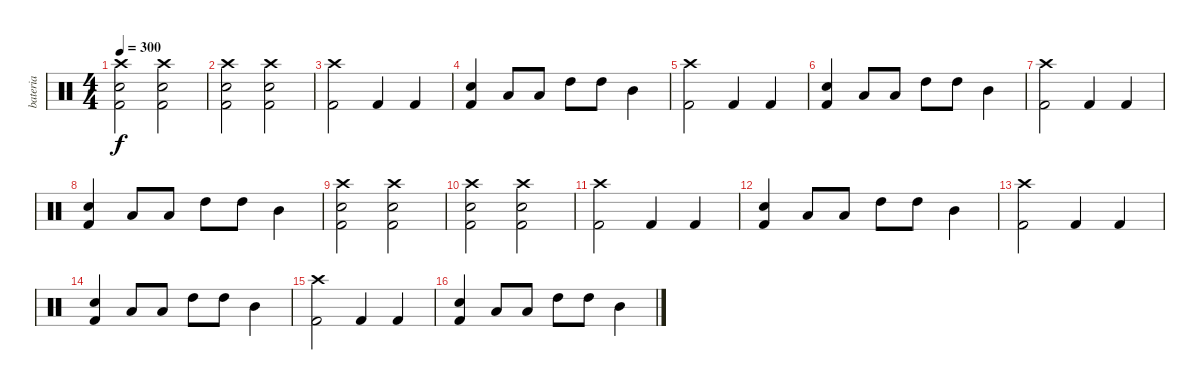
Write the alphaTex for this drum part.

\track ("bateria" "bateria") {instrument percussion}
\staff {score}
\articulation defaults
\ts (4 4)
\tempo 300
\clef neutral
\ks c
("Crash high (hit)" "Electric Snare (hit)" "Kick (hit) 2").2{dy f} ("Crash high (hit)" "Electric Snare (hit)" "Kick (hit) 2").2 |
("Crash high (hit)" "Electric Snare (hit)" "Kick (hit) 2").2 ("Crash high (hit)" "Electric Snare (hit)" "Kick (hit) 2").2 |
("Crash high (hit)" "Kick (hit) 2").2 "Kick (hit) 2".4 "Kick (hit) 2".4 |
("Electric Snare (hit)" "Kick (hit) 2").4 "Low Floor Tom (hit)".8 "Low Floor Tom (hit)".8 "High Tom (hit)".8 "High Tom (hit)".8 "Mid Tom (hit)".4 |
("Crash high (hit)" "Kick (hit) 2").2 "Kick (hit) 2".4 "Kick (hit) 2".4 |
("Electric Snare (hit)" "Kick (hit) 2").4 "Low Floor Tom (hit)".8 "Low Floor Tom (hit)".8 "High Tom (hit)".8 "High Tom (hit)".8 "Mid Tom (hit)".4 |
("Crash high (hit)" "Kick (hit) 2").2 "Kick (hit) 2".4 "Kick (hit) 2".4 |
("Electric Snare (hit)" "Kick (hit) 2").4 "Low Floor Tom (hit)".8 "Low Floor Tom (hit)".8 "High Tom (hit)".8 "High Tom (hit)".8 "Mid Tom (hit)".4 |
("Crash high (hit)" "Electric Snare (hit)" "Kick (hit) 2").2 ("Crash high (hit)" "Electric Snare (hit)" "Kick (hit) 2").2 |
("Crash high (hit)" "Electric Snare (hit)" "Kick (hit) 2").2 ("Crash high (hit)" "Electric Snare (hit)" "Kick (hit) 2").2 |
("Crash high (hit)" "Kick (hit) 2").2 "Kick (hit) 2".4 "Kick (hit) 2".4 |
("Electric Snare (hit)" "Kick (hit) 2").4 "Low Floor Tom (hit)".8 "Low Floor Tom (hit)".8 "High Tom (hit)".8 "High Tom (hit)".8 "Mid Tom (hit)".4 |
("Crash high (hit)" "Kick (hit) 2").2 "Kick (hit) 2".4 "Kick (hit) 2".4 |
("Electric Snare (hit)" "Kick (hit) 2").4 "Low Floor Tom (hit)".8 "Low Floor Tom (hit)".8 "High Tom (hit)".8 "High Tom (hit)".8 "Mid Tom (hit)".4 |
("Crash high (hit)" "Kick (hit) 2").2 "Kick (hit) 2".4 "Kick (hit) 2".4 |
("Electric Snare (hit)" "Kick (hit) 2").4 "Low Floor Tom (hit)".8 "Low Floor Tom (hit)".8 "High Tom (hit)".8 "High Tom (hit)".8 "Mid Tom (hit)".4
